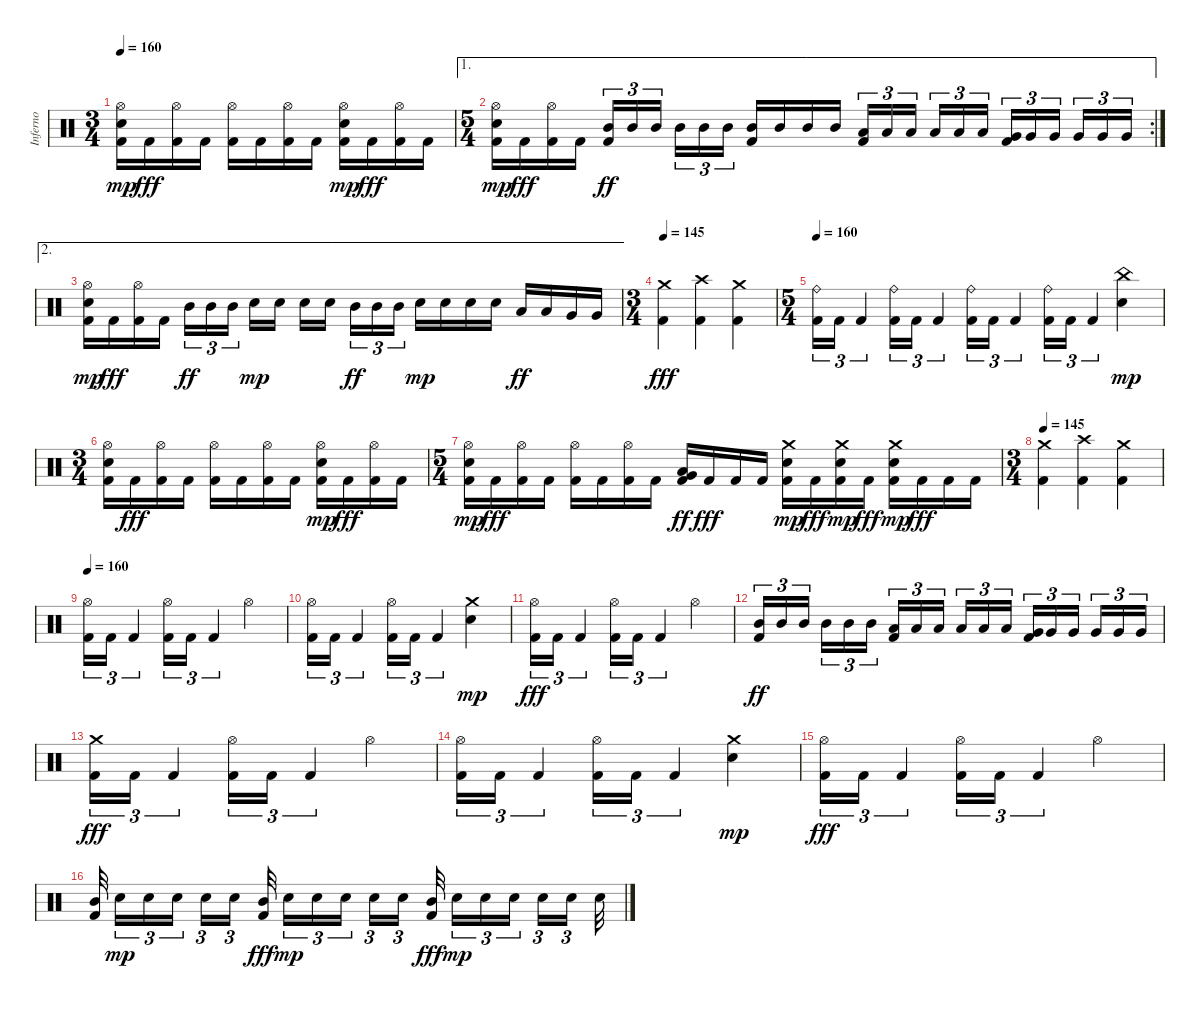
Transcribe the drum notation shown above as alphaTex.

\track ("Inferno" "Inferno") {instrument percussion}
\staff {score}
\articulation defaults
\ts (3 4)
\tempo 160
\clef neutral
\ks c
("Kick (hit) 2" "Hi-Hat (open)" "Electric Snare (hit)").16{dy mp} "Kick (hit) 2".16{dy fff} ("Kick (hit) 2" "Hi-Hat (open)").16 "Kick (hit) 2".16 ("Kick (hit) 2" "Hi-Hat (open)").16 "Kick (hit) 2".16 ("Kick (hit) 2" "Hi-Hat (open)").16 "Kick (hit) 2".16 ("Kick (hit) 2" "Hi-Hat (open)" "Electric Snare (hit)").16{dy mp} "Kick (hit) 2".16{dy fff} ("Kick (hit) 2" "Hi-Hat (open)").16 "Kick (hit) 2".16 |
\ae 1
\rc 2
\ts (5 4)
("Kick (hit) 2" "Hi-Hat (open)" "Electric Snare (hit)").16{dy mp} "Kick (hit) 2".16{dy fff} ("Kick (hit) 2" "Hi-Hat (open)").16 "Kick (hit) 2".16 ("Kick (hit) 2" "Mid Tom (hit)").16{tu (3 2) dy ff} "Mid Tom (hit)".16{tu (3 2)} "Mid Tom (hit)".16{tu (3 2) beam splitsecondary} "Mid Tom (hit)".16{tu (3 2)} "Mid Tom (hit)".16{tu (3 2)} "Mid Tom (hit)".16{tu (3 2)} ("Kick (hit) 2" "Mid Tom (hit)").16 "Mid Tom (hit)".16 "Mid Tom (hit)".16 "Mid Tom (hit)".16 ("Kick (hit) 2" "Low Tom (hit)").16{tu (3 2)} "Low Tom (hit)".16{tu (3 2)} "Low Tom (hit)".16{tu (3 2) beam splitsecondary} "Low Tom (hit)".16{tu (3 2)} "Low Tom (hit)".16{tu (3 2)} "Low Tom (hit)".16{tu (3 2)} ("Kick (hit) 2" "Very Low Tom (hit)").16{tu (3 2)} "Very Low Tom (hit)".16{tu (3 2)} "Very Low Tom (hit)".16{tu (3 2) beam splitsecondary} "Very Low Tom (hit)".16{tu (3 2)} "Very Low Tom (hit)".16{tu (3 2)} "Very Low Tom (hit)".16{tu (3 2)} |
\ae 2
("Kick (hit) 2" "Hi-Hat (open)" "Electric Snare (hit)").16{dy mp} "Kick (hit) 2".16{dy fff} ("Kick (hit) 2" "Hi-Hat (open)").16 "Kick (hit) 2".16 "Mid Tom (hit)".16{tu (3 2) dy ff} "Mid Tom (hit)".16{tu (3 2)} "Mid Tom (hit)".16{tu (3 2) beam splitsecondary} "Electric Snare (hit)".16{dy mp} "Electric Snare (hit)".16 "Electric Snare (hit)".16 "Electric Snare (hit)".16{beam splitsecondary} "Mid Tom (hit)".16{tu (3 2) dy ff} "Mid Tom (hit)".16{tu (3 2)} "Mid Tom (hit)".16{tu (3 2)} "Electric Snare (hit)".16{dy mp} "Electric Snare (hit)".16 "Electric Snare (hit)".16 "Electric Snare (hit)".16 "Low Tom (hit)".16{dy ff} "Low Tom (hit)".16 "Very Low Tom (hit)".16 "Very Low Tom (hit)".16 |
\ts (3 4)
\tempo 145
("Kick (hit) 2" "Crash medium (hit)").4{dy fff} ("Kick (hit) 2" "Crash high (hit)").4 ("Kick (hit) 2" "Crash medium (hit)").4 |
\ts (5 4)
\tempo 160
("Kick (hit) 2" "Ride (bell)").16{tu (3 2)} "Kick (hit) 2".16{tu (3 2)} "Kick (hit) 2".4{tu (3 2)} ("Kick (hit) 2" "Ride (bell)").16{tu (3 2)} "Kick (hit) 2".16{tu (3 2)} "Kick (hit) 2".4{tu (3 2)} ("Kick (hit) 2" "Ride (bell)").16{tu (3 2)} "Kick (hit) 2".16{tu (3 2)} "Kick (hit) 2".4{tu (3 2)} ("Kick (hit) 2" "Ride (bell)").16{tu (3 2)} "Kick (hit) 2".16{tu (3 2)} "Kick (hit) 2".4{tu (3 2)} ("China (hit)" "Electric Snare (hit)").4{dy mp} |
\ts (3 4)
("Kick (hit) 2" "Hi-Hat (open)" "Electric Snare (hit)").16 "Kick (hit) 2".16{dy fff} ("Kick (hit) 2" "Hi-Hat (open)").16 "Kick (hit) 2".16 ("Kick (hit) 2" "Hi-Hat (open)").16 "Kick (hit) 2".16 ("Kick (hit) 2" "Hi-Hat (open)").16 "Kick (hit) 2".16 ("Kick (hit) 2" "Hi-Hat (open)" "Electric Snare (hit)").16{dy mp} "Kick (hit) 2".16{dy fff} ("Kick (hit) 2" "Hi-Hat (open)").16 "Kick (hit) 2".16 |
\ts (5 4)
("Kick (hit) 2" "Hi-Hat (open)" "Electric Snare (hit)").16{dy mp} "Kick (hit) 2".16{dy fff} ("Kick (hit) 2" "Hi-Hat (open)").16 "Kick (hit) 2".16 ("Kick (hit) 2" "Hi-Hat (open)").16 "Kick (hit) 2".16 ("Kick (hit) 2" "Hi-Hat (open)").16 "Kick (hit) 2".16 ("Kick (hit) 2" "Low Tom (hit)" "Very Low Tom (hit)").16{dy ff} "Kick (hit) 2".16{dy fff} "Kick (hit) 2".16 "Kick (hit) 2".16 ("Kick (hit) 2" "Crash medium (hit)" "Electric Snare (hit)").16{dy mp} "Kick (hit) 2".16{dy fff} ("Kick (hit) 2" "Crash medium (hit)" "Electric Snare (hit)").16{dy mp} "Kick (hit) 2".16{dy fff} ("Kick (hit) 2" "Crash medium (hit)" "Electric Snare (hit)").16{dy mp} "Kick (hit) 2".16{dy fff} "Kick (hit) 2".16 "Kick (hit) 2".16 |
\ts (3 4)
\tempo 145
("Kick (hit) 2" "Crash medium (hit)").4 ("Kick (hit) 2" "Crash high (hit)").4 ("Kick (hit) 2" "Crash medium (hit)").4 |
\tempo 160
("Kick (hit) 2" "Hi-Hat (open)").16{tu (3 2)} "Kick (hit) 2".16{tu (3 2)} "Kick (hit) 2".4{tu (3 2)} ("Kick (hit) 2" "Hi-Hat (open)").16{tu (3 2)} "Kick (hit) 2".16{tu (3 2)} "Kick (hit) 2".4{tu (3 2)} "Hi-Hat (open)".4 |
("Kick (hit) 2" "Hi-Hat (open)").16{tu (3 2)} "Kick (hit) 2".16{tu (3 2)} "Kick (hit) 2".4{tu (3 2)} ("Kick (hit) 2" "Hi-Hat (open)").16{tu (3 2)} "Kick (hit) 2".16{tu (3 2)} "Kick (hit) 2".4{tu (3 2)} ("Crash medium (hit)" "Electric Snare (hit)").4{dy mp} |
("Kick (hit) 2" "Hi-Hat (open)").16{tu (3 2) dy fff} "Kick (hit) 2".16{tu (3 2)} "Kick (hit) 2".4{tu (3 2)} ("Kick (hit) 2" "Hi-Hat (open)").16{tu (3 2)} "Kick (hit) 2".16{tu (3 2)} "Kick (hit) 2".4{tu (3 2)} "Hi-Hat (open)".4 |
("Kick (hit) 2" "Mid Tom (hit)").16{tu (3 2) dy ff} "Mid Tom (hit)".16{tu (3 2)} "Mid Tom (hit)".16{tu (3 2) beam splitsecondary} "Mid Tom (hit)".16{tu (3 2)} "Mid Tom (hit)".16{tu (3 2)} "Mid Tom (hit)".16{tu (3 2)} ("Kick (hit) 2" "Low Tom (hit)").16{tu (3 2)} "Low Tom (hit)".16{tu (3 2)} "Low Tom (hit)".16{tu (3 2) beam splitsecondary} "Low Tom (hit)".16{tu (3 2)} "Low Tom (hit)".16{tu (3 2)} "Low Tom (hit)".16{tu (3 2)} ("Kick (hit) 2" "Very Low Tom (hit)").16{tu (3 2)} "Very Low Tom (hit)".16{tu (3 2)} "Very Low Tom (hit)".16{tu (3 2) beam splitsecondary} "Very Low Tom (hit)".16{tu (3 2)} "Very Low Tom (hit)".16{tu (3 2)} "Very Low Tom (hit)".16{tu (3 2)} |
("Kick (hit) 2" "Crash medium (hit)").16{tu (3 2) dy fff} "Kick (hit) 2".16{tu (3 2)} "Kick (hit) 2".4{tu (3 2)} ("Kick (hit) 2" "Hi-Hat (open)").16{tu (3 2)} "Kick (hit) 2".16{tu (3 2)} "Kick (hit) 2".4{tu (3 2)} "Hi-Hat (open)".4 |
("Kick (hit) 2" "Hi-Hat (open)").16{tu (3 2)} "Kick (hit) 2".16{tu (3 2)} "Kick (hit) 2".4{tu (3 2)} ("Kick (hit) 2" "Hi-Hat (open)").16{tu (3 2)} "Kick (hit) 2".16{tu (3 2)} "Kick (hit) 2".4{tu (3 2)} ("Crash medium (hit)" "Electric Snare (hit)").4{dy mp} |
("Kick (hit) 2" "Hi-Hat (open)").16{tu (3 2) dy fff} "Kick (hit) 2".16{tu (3 2)} "Kick (hit) 2".4{tu (3 2)} ("Kick (hit) 2" "Hi-Hat (open)").16{tu (3 2)} "Kick (hit) 2".16{tu (3 2)} "Kick (hit) 2".4{tu (3 2)} "Hi-Hat (open)".4 |
("Kick (hit) 2" "Mid Tom (hit)").32{beam splitsecondary} "Electric Snare (hit)".16{tu (3 2) dy mp} "Electric Snare (hit)".16{tu (3 2)} "Electric Snare (hit)".16{tu (3 2) beam splitsecondary} "Electric Snare (hit)".16{tu (3 2)} "Electric Snare (hit)".16{tu (3 2) beam splitsecondary} ("Kick (hit) 2" "Mid Tom (hit)").32{dy fff} "Electric Snare (hit)".16{tu (3 2) dy mp} "Electric Snare (hit)".16{tu (3 2)} "Electric Snare (hit)".16{tu (3 2) beam splitsecondary} "Electric Snare (hit)".16{tu (3 2)} "Electric Snare (hit)".16{tu (3 2) beam splitsecondary} ("Kick (hit) 2" "Mid Tom (hit)").32{dy fff} "Electric Snare (hit)".16{tu (3 2) dy mp} "Electric Snare (hit)".16{tu (3 2)} "Electric Snare (hit)".16{tu (3 2) beam splitsecondary} "Electric Snare (hit)".16{tu (3 2)} "Electric Snare (hit)".16{tu (3 2) beam splitsecondary} "Electric Snare (hit)".32
